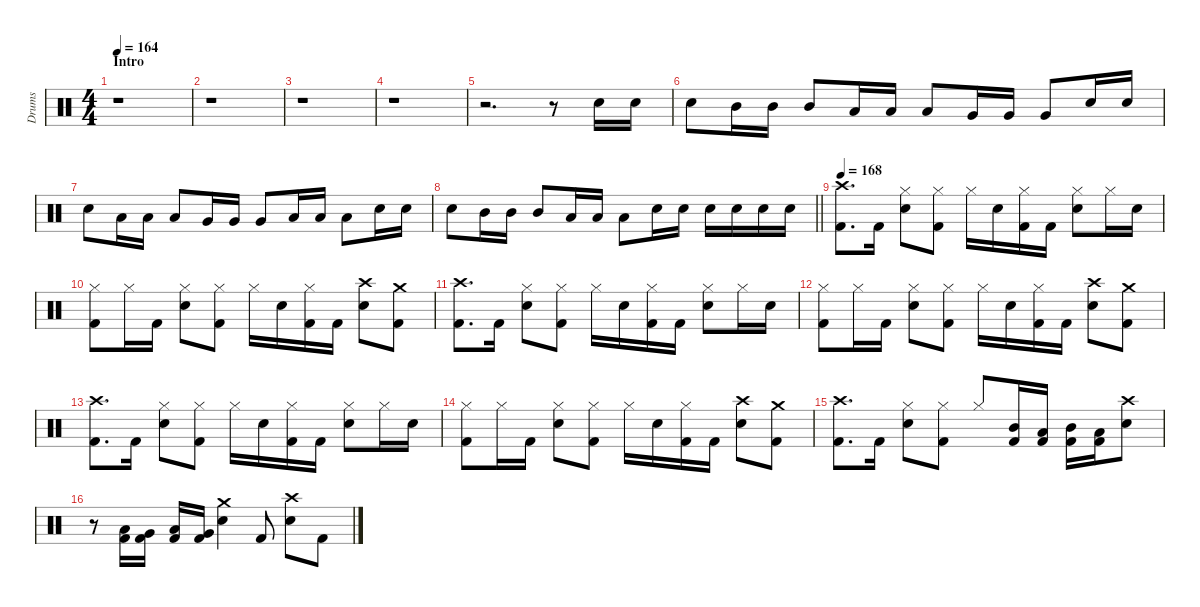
\defaultSystemsLayout 4
\hideDynamics
\bracketExtendMode nobrackets
\firstSystemTrackNameMode fullname
\otherSystemsTrackNameOrientation horizontal
\track ("Drums" "drm.") {instrument percussion}
\staff {score}
\articulation defaults
\ts (4 4)
\beaming (8 2 2 2 2)
\section ("" "Intro")
\tempo 164
\clef neutral
\ks c
r.1{dy f beam Down} |
r.1{beam Down} |
r.1{beam Down} |
r.1{beam Down} |
r.2{d beam Down} r.8{beam Down} "Snare (hit) 2".16{beam Down} "Snare (hit) 2".16{beam Down} |
"Snare (hit) 2".8{beam Down} "Mid Tom (hit)".16{beam Down} "Mid Tom (hit)".16{beam Down} "Mid Tom (hit)".8{beam Up} "Low Tom (hit)".16{beam Up} "Low Tom (hit)".16{beam Up} "Low Tom (hit)".8{beam Up} "Very Low Tom (hit)".16{beam Up} "Very Low Tom (hit)".16{beam Up} "Very Low Tom (hit)".8{beam Up} "Snare (hit) 2".16{beam Up} "Snare (hit) 2".16{beam Up} |
"Snare (hit) 2".8{beam Down} "Low Tom (hit)".16{beam Down} "Low Tom (hit)".16{beam Down} "Low Tom (hit)".8{beam Up} "Very Low Tom (hit)".16{beam Up} "Very Low Tom (hit)".16{beam Up} "Very Low Tom (hit)".8{beam Up} "Low Floor Tom (hit)".16{beam Up} "Low Floor Tom (hit)".16{beam Up} "Low Floor Tom (hit)".8{beam Down} "Snare (hit) 2".16{beam Down} "Snare (hit) 2".16{beam Down} |
\barLineRight lightlight "Snare (hit) 2".8{beam Down} "Mid Tom (hit)".16{beam Down} "Mid Tom (hit)".16{beam Down} "Mid Tom (hit)".8{beam Up} "Low Tom (hit)".16{beam Up} "Low Tom (hit)".16{beam Up} "Low Tom (hit)".8{beam Down} "Snare (hit) 2".16{beam Down} "Snare (hit) 2".16{beam Down} "Snare (hit) 2".16{beam Down} "Snare (hit) 2".16{beam Down} "Snare (hit) 2".16{beam Down} "Snare (hit) 2".16{beam Down}
|
\tempo 168
("Crash high (hit)" "Kick (hit) 2").8{d beam Down} "Kick (hit) 2".16{beam Down} ("Hi-Hat (closed)" "Snare (hit) 2").8{beam Down} ("Hi-Hat (closed)" "Kick (hit) 2").8{beam Down} "Hi-Hat (closed)".16{beam Down} "Snare (hit) 2".16{dy p beam Down} ("Hi-Hat (closed)" "Kick (hit) 2").16{dy f beam Down} "Kick (hit) 2".16{beam Down} ("Hi-Hat (closed)" "Snare (hit) 2").8{beam Down} "Hi-Hat (closed)".16{beam Down} "Snare (hit) 2".16{beam Down} |
("Hi-Hat (closed)" "Kick (hit) 2").8{beam Down} "Hi-Hat (closed)".16{beam Down} "Kick (hit) 2".16{beam Down} ("Hi-Hat (closed)" "Snare (hit) 2").8{beam Down} ("Hi-Hat (closed)" "Kick (hit) 2").8{beam Down} "Hi-Hat (closed)".16{beam Down} "Snare (hit) 2".16{dy p beam Down} ("Hi-Hat (closed)" "Kick (hit) 2").16{dy f beam Down} "Kick (hit) 2".16{beam Down} ("Crash high (hit)" "Snare (hit) 2").8{beam Down} ("Crash medium (hit)" "Kick (hit) 2").8{beam Down} |
("Crash high (hit)" "Kick (hit) 2").8{d beam Down} "Kick (hit) 2".16{beam Down} ("Hi-Hat (closed)" "Snare (hit) 2").8{beam Down} ("Hi-Hat (closed)" "Kick (hit) 2").8{beam Down} "Hi-Hat (closed)".16{beam Down} "Snare (hit) 2".16{dy p beam Down} ("Hi-Hat (closed)" "Kick (hit) 2").16{dy f beam Down} "Kick (hit) 2".16{beam Down} ("Hi-Hat (closed)" "Snare (hit) 2").8{beam Down} "Hi-Hat (closed)".16{beam Down} "Snare (hit) 2".16{beam Down} |
("Hi-Hat (closed)" "Kick (hit) 2").8{beam Down} "Hi-Hat (closed)".16{beam Down} "Kick (hit) 2".16{beam Down} ("Hi-Hat (closed)" "Snare (hit) 2").8{beam Down} ("Hi-Hat (closed)" "Kick (hit) 2").8{beam Down} "Hi-Hat (closed)".16{beam Down} "Snare (hit) 2".16{dy p beam Down} ("Hi-Hat (closed)" "Kick (hit) 2").16{dy f beam Down} "Kick (hit) 2".16{beam Down} ("Crash high (hit)" "Snare (hit) 2").8{beam Down} ("Crash medium (hit)" "Kick (hit) 2").8{beam Down} |
("Crash high (hit)" "Kick (hit) 2").8{d beam Down} "Kick (hit) 2".16{beam Down} ("Hi-Hat (closed)" "Snare (hit) 2").8{beam Down} ("Hi-Hat (closed)" "Kick (hit) 2").8{beam Down} "Hi-Hat (closed)".16{beam Down} "Snare (hit) 2".16{dy p beam Down} ("Hi-Hat (closed)" "Kick (hit) 2").16{dy f beam Down} "Kick (hit) 2".16{beam Down} ("Hi-Hat (closed)" "Snare (hit) 2").8{beam Down} "Hi-Hat (closed)".16{beam Down} "Snare (hit) 2".16{beam Down} |
("Hi-Hat (closed)" "Kick (hit) 2").8{beam Down} "Hi-Hat (closed)".16{beam Down} "Kick (hit) 2".16{beam Down} ("Hi-Hat (closed)" "Snare (hit) 2").8{beam Down} ("Hi-Hat (closed)" "Kick (hit) 2").8{beam Down} "Hi-Hat (closed)".16{beam Down} "Snare (hit) 2".16{dy p beam Down} ("Hi-Hat (closed)" "Kick (hit) 2").16{dy f beam Down} "Kick (hit) 2".16{beam Down} ("Crash high (hit)" "Snare (hit) 2").8{beam Down} ("Crash medium (hit)" "Kick (hit) 2").8{beam Down} |
("Crash high (hit)" "Kick (hit) 2").8{d beam Down} "Kick (hit) 2".16{beam Down} ("Hi-Hat (closed)" "Snare (hit) 2").8{beam Down} ("Hi-Hat (closed)" "Kick (hit) 2").8{beam Down} "Hi-Hat (closed)".8{beam Up} ("Mid Tom (hit)" "Kick (hit) 2").16{beam Up} ("Low Tom (hit)" "Kick (hit) 2").16{beam Up} ("Mid Tom (hit)" "Kick (hit) 2").16{beam Down} ("Low Tom (hit)" "Kick (hit) 2").16{beam Down} ("Crash high (hit)" "Snare (hit) 2").8{beam Down} |
r.8{beam Down} ("Low Tom (hit)" "Kick (hit) 2").16{beam Up} ("Very Low Tom (hit)" "Kick (hit) 2").16{beam Up} ("Low Tom (hit)" "Kick (hit) 2").16{beam Up} ("Very Low Tom (hit)" "Kick (hit) 2").16{beam Up} ("Crash medium (hit)" "Snare (hit) 2").4{beam Down} "Kick (hit) 2".8{beam Up} ("Crash high (hit)" "Snare (hit) 2").8{beam Down} "Kick (hit) 2".8{beam Down}
